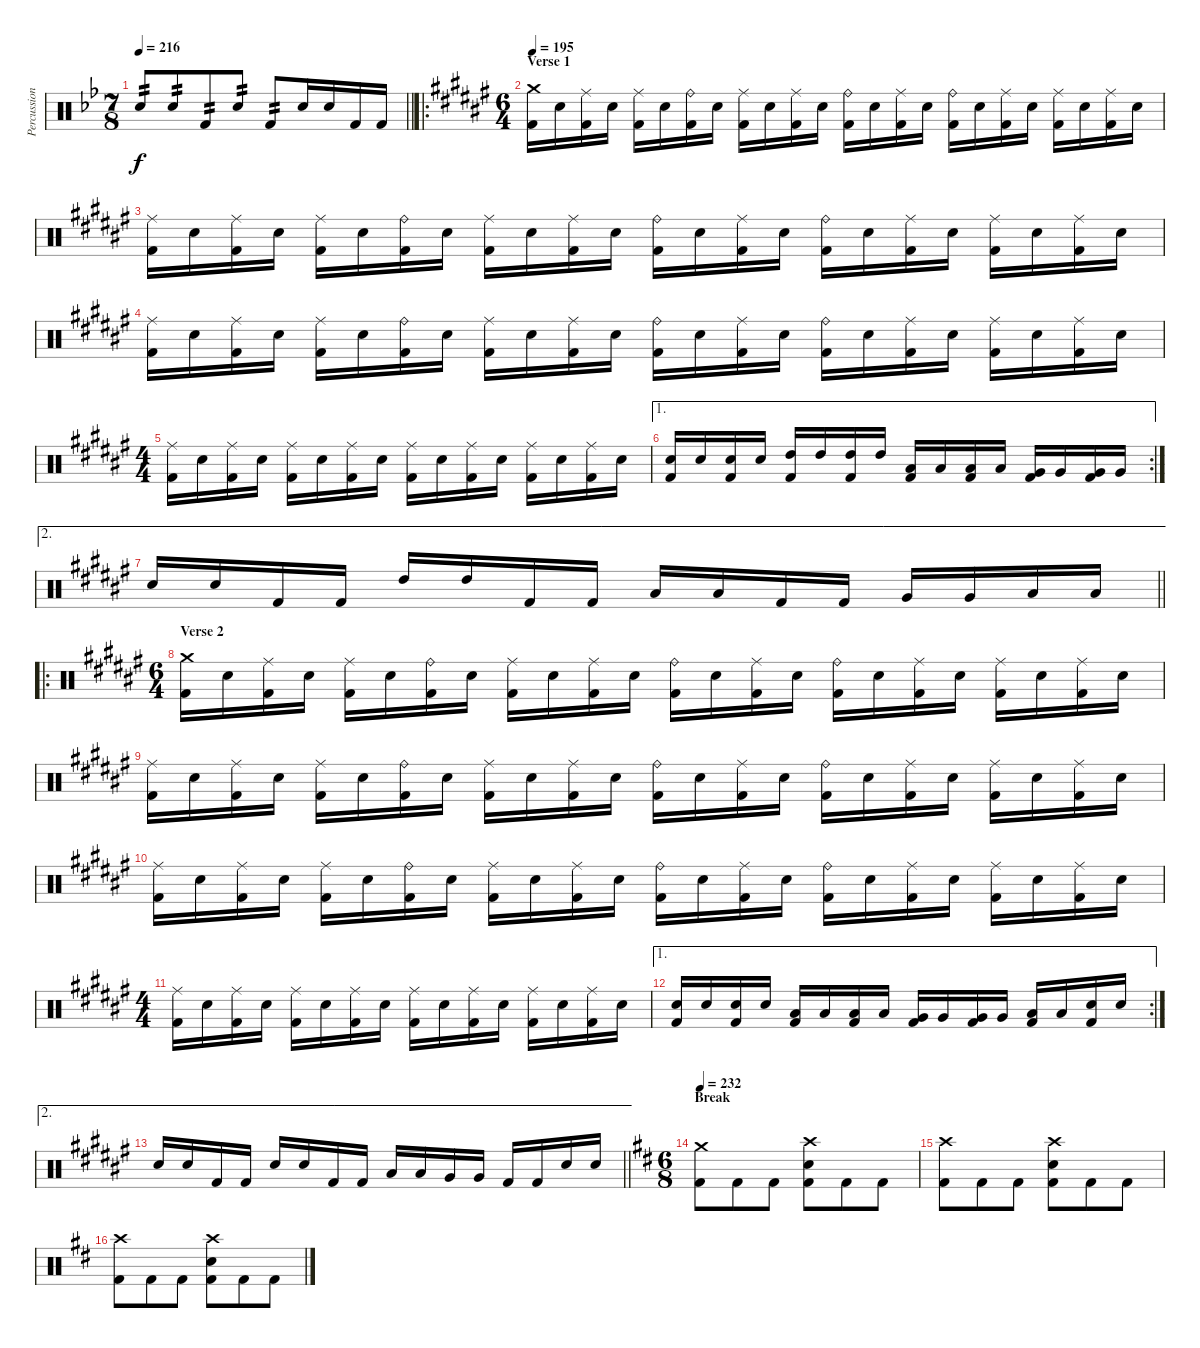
\track ("Percussion" "Percussion") {instrument percussion}
\staff {score}
\articulation defaults
\ts (7 8)
\tempo 216
\clef neutral
\barLineRight lightlight
\ks gminor "Electric Snare (hit)".8{tp 2 dy f} "Electric Snare (hit)".8{tp 2} "Kick (hit) 2".8{tp 2} "Electric Snare (hit)".8{tp 2} "Kick (hit) 2".8{tp 2} "Electric Snare (hit)".16 "Electric Snare (hit)".16 "Kick (hit) 2".16 "Kick (hit) 2".16
|
\ro
\ts (6 4)
\section ("" "Verse 1")
\tempo 195
\ks d#minor
("Crash medium (hit)" "Kick (hit) 2").16 "Electric Snare (hit)".16 ("Ride (middle)" "Kick (hit) 2").16 "Electric Snare (hit)".16 ("Ride (middle)" "Kick (hit) 2").16 "Electric Snare (hit)".16 ("Ride (bell)" "Kick (hit) 2").16 "Electric Snare (hit)".16 ("Ride (middle)" "Kick (hit) 2").16 "Electric Snare (hit)".16 ("Ride (middle)" "Kick (hit) 2").16 "Electric Snare (hit)".16 ("Ride (bell)" "Kick (hit) 2").16 "Electric Snare (hit)".16 ("Ride (middle)" "Kick (hit) 2").16 "Electric Snare (hit)".16 ("Ride (bell)" "Kick (hit) 2").16 "Electric Snare (hit)".16 ("Ride (middle)" "Kick (hit) 2").16 "Electric Snare (hit)".16 ("Ride (middle)" "Kick (hit) 2").16 "Electric Snare (hit)".16 ("Ride (middle)" "Kick (hit) 2").16 "Electric Snare (hit)".16 |
("Ride (middle)" "Kick (hit) 2").16 "Electric Snare (hit)".16 ("Ride (middle)" "Kick (hit) 2").16 "Electric Snare (hit)".16 ("Ride (middle)" "Kick (hit) 2").16 "Electric Snare (hit)".16 ("Ride (bell)" "Kick (hit) 2").16 "Electric Snare (hit)".16 ("Ride (middle)" "Kick (hit) 2").16 "Electric Snare (hit)".16 ("Ride (middle)" "Kick (hit) 2").16 "Electric Snare (hit)".16 ("Ride (bell)" "Kick (hit) 2").16 "Electric Snare (hit)".16 ("Ride (middle)" "Kick (hit) 2").16 "Electric Snare (hit)".16 ("Ride (bell)" "Kick (hit) 2").16 "Electric Snare (hit)".16 ("Ride (middle)" "Kick (hit) 2").16 "Electric Snare (hit)".16 ("Ride (middle)" "Kick (hit) 2").16 "Electric Snare (hit)".16 ("Ride (middle)" "Kick (hit) 2").16 "Electric Snare (hit)".16 |
("Ride (middle)" "Kick (hit) 2").16 "Electric Snare (hit)".16 ("Ride (middle)" "Kick (hit) 2").16 "Electric Snare (hit)".16 ("Ride (middle)" "Kick (hit) 2").16 "Electric Snare (hit)".16 ("Ride (bell)" "Kick (hit) 2").16 "Electric Snare (hit)".16 ("Ride (middle)" "Kick (hit) 2").16 "Electric Snare (hit)".16 ("Ride (middle)" "Kick (hit) 2").16 "Electric Snare (hit)".16 ("Ride (bell)" "Kick (hit) 2").16 "Electric Snare (hit)".16 ("Ride (middle)" "Kick (hit) 2").16 "Electric Snare (hit)".16 ("Ride (bell)" "Kick (hit) 2").16 "Electric Snare (hit)".16 ("Ride (middle)" "Kick (hit) 2").16 "Electric Snare (hit)".16 ("Ride (middle)" "Kick (hit) 2").16 "Electric Snare (hit)".16 ("Ride (middle)" "Kick (hit) 2").16 "Electric Snare (hit)".16 |
\ts (4 4)
("Ride (middle)" "Kick (hit) 2").16 "Electric Snare (hit)".16 ("Ride (middle)" "Kick (hit) 2").16 "Electric Snare (hit)".16 ("Ride (middle)" "Kick (hit) 2").16 "Electric Snare (hit)".16 ("Ride (middle)" "Kick (hit) 2").16 "Electric Snare (hit)".16 ("Ride (middle)" "Kick (hit) 2").16 "Electric Snare (hit)".16 ("Ride (middle)" "Kick (hit) 2").16 "Electric Snare (hit)".16 ("Ride (middle)" "Kick (hit) 2").16 "Electric Snare (hit)".16 ("Ride (middle)" "Kick (hit) 2").16 "Electric Snare (hit)".16 |
\ae 1
\rc 2
("Electric Snare (hit)" "Kick (hit) 2").16 "Electric Snare (hit)".16 ("Electric Snare (hit)" "Kick (hit) 2").16 "Electric Snare (hit)".16 ("High Tom (hit)" "Kick (hit) 2").16 "High Tom (hit)".16 ("High Tom (hit)" "Kick (hit) 2").16 "High Tom (hit)".16 ("Low Tom (hit)" "Kick (hit) 2").16 "Low Tom (hit)".16 ("Low Tom (hit)" "Kick (hit) 2").16 "Low Tom (hit)".16 ("Very Low Tom (hit)" "Kick (hit) 2").16 "Very Low Tom (hit)".16 ("Very Low Tom (hit)" "Kick (hit) 2").16 "Very Low Tom (hit)".16 |
\ae 2
\barLineRight lightlight "Electric Snare (hit)".16 "Electric Snare (hit)".16 "Kick (hit) 2".16 "Kick (hit) 2".16 "High Tom (hit)".16 "High Tom (hit)".16 "Kick (hit) 2".16 "Kick (hit) 2".16 "Low Tom (hit)".16 "Low Tom (hit)".16 "Kick (hit) 2".16 "Kick (hit) 2".16 "Very Low Tom (hit)".16 "Very Low Tom (hit)".16 "Low Floor Tom (hit)".16 "Low Floor Tom (hit)".16
|
\ro
\ts (6 4)
\section ("" "Verse 2")
("Crash medium (hit)" "Kick (hit) 2").16 "Electric Snare (hit)".16 ("Ride (middle)" "Kick (hit) 2").16 "Electric Snare (hit)".16 ("Ride (middle)" "Kick (hit) 2").16 "Electric Snare (hit)".16 ("Ride (bell)" "Kick (hit) 2").16 "Electric Snare (hit)".16 ("Ride (middle)" "Kick (hit) 2").16 "Electric Snare (hit)".16 ("Ride (middle)" "Kick (hit) 2").16 "Electric Snare (hit)".16 ("Ride (bell)" "Kick (hit) 2").16 "Electric Snare (hit)".16 ("Ride (middle)" "Kick (hit) 2").16 "Electric Snare (hit)".16 ("Ride (bell)" "Kick (hit) 2").16 "Electric Snare (hit)".16 ("Ride (middle)" "Kick (hit) 2").16 "Electric Snare (hit)".16 ("Ride (middle)" "Kick (hit) 2").16 "Electric Snare (hit)".16 ("Ride (middle)" "Kick (hit) 2").16 "Electric Snare (hit)".16 |
("Ride (middle)" "Kick (hit) 2").16 "Electric Snare (hit)".16 ("Ride (middle)" "Kick (hit) 2").16 "Electric Snare (hit)".16 ("Ride (middle)" "Kick (hit) 2").16 "Electric Snare (hit)".16 ("Ride (bell)" "Kick (hit) 2").16 "Electric Snare (hit)".16 ("Ride (middle)" "Kick (hit) 2").16 "Electric Snare (hit)".16 ("Ride (middle)" "Kick (hit) 2").16 "Electric Snare (hit)".16 ("Ride (bell)" "Kick (hit) 2").16 "Electric Snare (hit)".16 ("Ride (middle)" "Kick (hit) 2").16 "Electric Snare (hit)".16 ("Ride (bell)" "Kick (hit) 2").16 "Electric Snare (hit)".16 ("Ride (middle)" "Kick (hit) 2").16 "Electric Snare (hit)".16 ("Ride (middle)" "Kick (hit) 2").16 "Electric Snare (hit)".16 ("Ride (middle)" "Kick (hit) 2").16 "Electric Snare (hit)".16 |
("Ride (middle)" "Kick (hit) 2").16 "Electric Snare (hit)".16 ("Ride (middle)" "Kick (hit) 2").16 "Electric Snare (hit)".16 ("Ride (middle)" "Kick (hit) 2").16 "Electric Snare (hit)".16 ("Ride (bell)" "Kick (hit) 2").16 "Electric Snare (hit)".16 ("Ride (middle)" "Kick (hit) 2").16 "Electric Snare (hit)".16 ("Ride (middle)" "Kick (hit) 2").16 "Electric Snare (hit)".16 ("Ride (bell)" "Kick (hit) 2").16 "Electric Snare (hit)".16 ("Ride (middle)" "Kick (hit) 2").16 "Electric Snare (hit)".16 ("Ride (bell)" "Kick (hit) 2").16 "Electric Snare (hit)".16 ("Ride (middle)" "Kick (hit) 2").16 "Electric Snare (hit)".16 ("Ride (middle)" "Kick (hit) 2").16 "Electric Snare (hit)".16 ("Ride (middle)" "Kick (hit) 2").16 "Electric Snare (hit)".16 |
\ts (4 4)
("Ride (middle)" "Kick (hit) 2").16 "Electric Snare (hit)".16 ("Ride (middle)" "Kick (hit) 2").16 "Electric Snare (hit)".16 ("Ride (middle)" "Kick (hit) 2").16 "Electric Snare (hit)".16 ("Ride (middle)" "Kick (hit) 2").16 "Electric Snare (hit)".16 ("Ride (middle)" "Kick (hit) 2").16 "Electric Snare (hit)".16 ("Ride (middle)" "Kick (hit) 2").16 "Electric Snare (hit)".16 ("Ride (middle)" "Kick (hit) 2").16 "Electric Snare (hit)".16 ("Ride (middle)" "Kick (hit) 2").16 "Electric Snare (hit)".16 |
\ae 1
\rc 2
("Electric Snare (hit)" "Kick (hit) 2").16 "Electric Snare (hit)".16 ("Electric Snare (hit)" "Kick (hit) 2").16 "Electric Snare (hit)".16 ("Low Tom (hit)" "Kick (hit) 2").16 "Low Tom (hit)".16 ("Low Tom (hit)" "Kick (hit) 2").16 "Low Tom (hit)".16 ("Very Low Tom (hit)" "Kick (hit) 2").16 "Very Low Tom (hit)".16 ("Very Low Tom (hit)" "Kick (hit) 2").16 "Very Low Tom (hit)".16 ("Low Floor Tom (hit)" "Kick (hit) 2").16 "Low Floor Tom (hit)".16 ("Electric Snare (hit)" "Kick (hit) 2").16 "Electric Snare (hit)".16 |
\ae 2
\barLineRight lightlight "Electric Snare (hit)".16 "Electric Snare (hit)".16 "Kick (hit) 2".16 "Kick (hit) 2".16 "Electric Snare (hit)".16 "Electric Snare (hit)".16 "Kick (hit) 2".16 "Kick (hit) 2".16 "Low Tom (hit)".16 "Low Tom (hit)".16 "Very Low Tom (hit)".16 "Very Low Tom (hit)".16 "Kick (hit) 2".16 "Kick (hit) 2".16 "Electric Snare (hit)".16 "Electric Snare (hit)".16
|
\ts (6 8)
\section ("" "Break")
\tempo 232
\ks bminor
("Crash medium (hit)" "Kick (hit) 2").8 "Kick (hit) 2".8 "Kick (hit) 2".8 ("Crash high (hit)" "Electric Snare (hit)" "Kick (hit) 2").8 "Kick (hit) 2".8 "Kick (hit) 2".8 |
("Crash high (hit)" "Kick (hit) 2").8 "Kick (hit) 2".8 "Kick (hit) 2".8 ("Crash high (hit)" "Electric Snare (hit)" "Kick (hit) 2").8 "Kick (hit) 2".8 "Kick (hit) 2".8 |
("Crash high (hit)" "Kick (hit) 2").8 "Kick (hit) 2".8 "Kick (hit) 2".8 ("Crash high (hit)" "Electric Snare (hit)" "Kick (hit) 2").8 "Kick (hit) 2".8 "Kick (hit) 2".8
